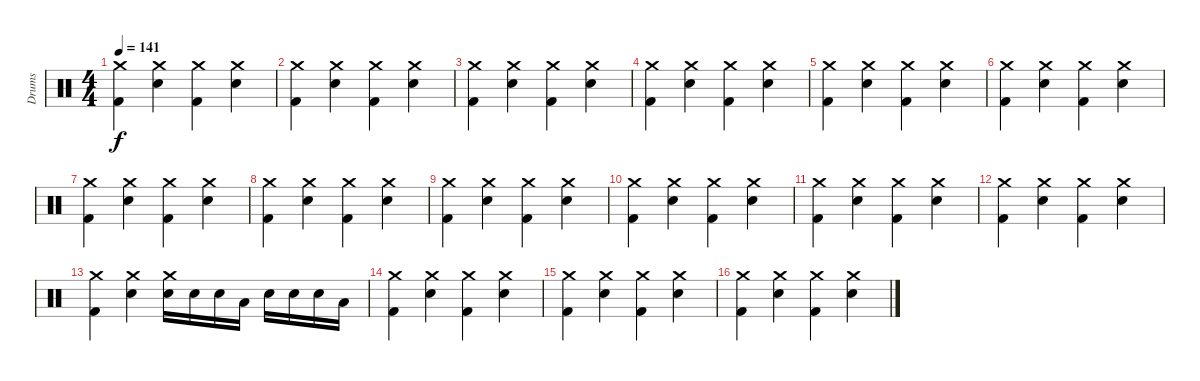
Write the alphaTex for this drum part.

\track ("Drums" "Drums") {instrument percussion}
\staff {score}
\articulation defaults
\ts (4 4)
\tempo 141
\clef neutral
\ks c
("Crash medium (hit)" "Kick (hit) 2").4{dy f} ("Crash medium (hit)" "Snare (hit) 2").4 ("Crash medium (hit)" "Kick (hit) 2").4 ("Crash medium (hit)" "Snare (hit) 2").4 |
("Crash medium (hit)" "Kick (hit) 2").4 ("Crash medium (hit)" "Snare (hit) 2").4 ("Crash medium (hit)" "Kick (hit) 2").4 ("Crash medium (hit)" "Snare (hit) 2").4 |
("Crash medium (hit)" "Kick (hit) 2").4 ("Crash medium (hit)" "Snare (hit) 2").4 ("Crash medium (hit)" "Kick (hit) 2").4 ("Crash medium (hit)" "Snare (hit) 2").4 |
("Crash medium (hit)" "Kick (hit) 2").4 ("Crash medium (hit)" "Snare (hit) 2").4 ("Crash medium (hit)" "Kick (hit) 2").4 ("Crash medium (hit)" "Snare (hit) 2").4 |
("Crash medium (hit)" "Kick (hit) 2").4 ("Crash medium (hit)" "Snare (hit) 2").4 ("Crash medium (hit)" "Kick (hit) 2").4 ("Crash medium (hit)" "Snare (hit) 2").4 |
("Crash medium (hit)" "Kick (hit) 2").4 ("Crash medium (hit)" "Snare (hit) 2").4 ("Crash medium (hit)" "Kick (hit) 2").4 ("Crash medium (hit)" "Snare (hit) 2").4 |
("Crash medium (hit)" "Kick (hit) 2").4 ("Crash medium (hit)" "Snare (hit) 2").4 ("Crash medium (hit)" "Kick (hit) 2").4 ("Crash medium (hit)" "Snare (hit) 2").4 |
("Crash medium (hit)" "Kick (hit) 2").4 ("Crash medium (hit)" "Snare (hit) 2").4 ("Crash medium (hit)" "Kick (hit) 2").4 ("Crash medium (hit)" "Snare (hit) 2").4 |
("Crash medium (hit)" "Kick (hit) 2").4 ("Crash medium (hit)" "Snare (hit) 2").4 ("Crash medium (hit)" "Kick (hit) 2").4 ("Crash medium (hit)" "Snare (hit) 2").4 |
("Crash medium (hit)" "Kick (hit) 2").4 ("Crash medium (hit)" "Snare (hit) 2").4 ("Crash medium (hit)" "Kick (hit) 2").4 ("Crash medium (hit)" "Snare (hit) 2").4 |
("Crash medium (hit)" "Kick (hit) 2").4 ("Crash medium (hit)" "Snare (hit) 2").4 ("Crash medium (hit)" "Kick (hit) 2").4 ("Crash medium (hit)" "Snare (hit) 2").4 |
("Crash medium (hit)" "Kick (hit) 2").4 ("Crash medium (hit)" "Snare (hit) 2").4 ("Crash medium (hit)" "Kick (hit) 2").4 ("Crash medium (hit)" "Snare (hit) 2").4 |
("Crash medium (hit)" "Kick (hit) 2").4 ("Crash medium (hit)" "Snare (hit) 2").4 ("Crash medium (hit)" "Snare (hit) 2").16 "Snare (hit) 2".16 "Snare (hit) 2".16 "Low Tom (hit)".16 "Snare (hit) 2".16 "Snare (hit) 2".16 "Snare (hit) 2".16 "Low Tom (hit)".16 |
("Crash medium (hit)" "Kick (hit) 2").4 ("Crash medium (hit)" "Snare (hit) 2").4 ("Crash medium (hit)" "Kick (hit) 2").4 ("Crash medium (hit)" "Snare (hit) 2").4 |
("Crash medium (hit)" "Kick (hit) 2").4 ("Crash medium (hit)" "Snare (hit) 2").4 ("Crash medium (hit)" "Kick (hit) 2").4 ("Crash medium (hit)" "Snare (hit) 2").4 |
("Crash medium (hit)" "Kick (hit) 2").4 ("Crash medium (hit)" "Snare (hit) 2").4 ("Crash medium (hit)" "Kick (hit) 2").4 ("Crash medium (hit)" "Snare (hit) 2").4
